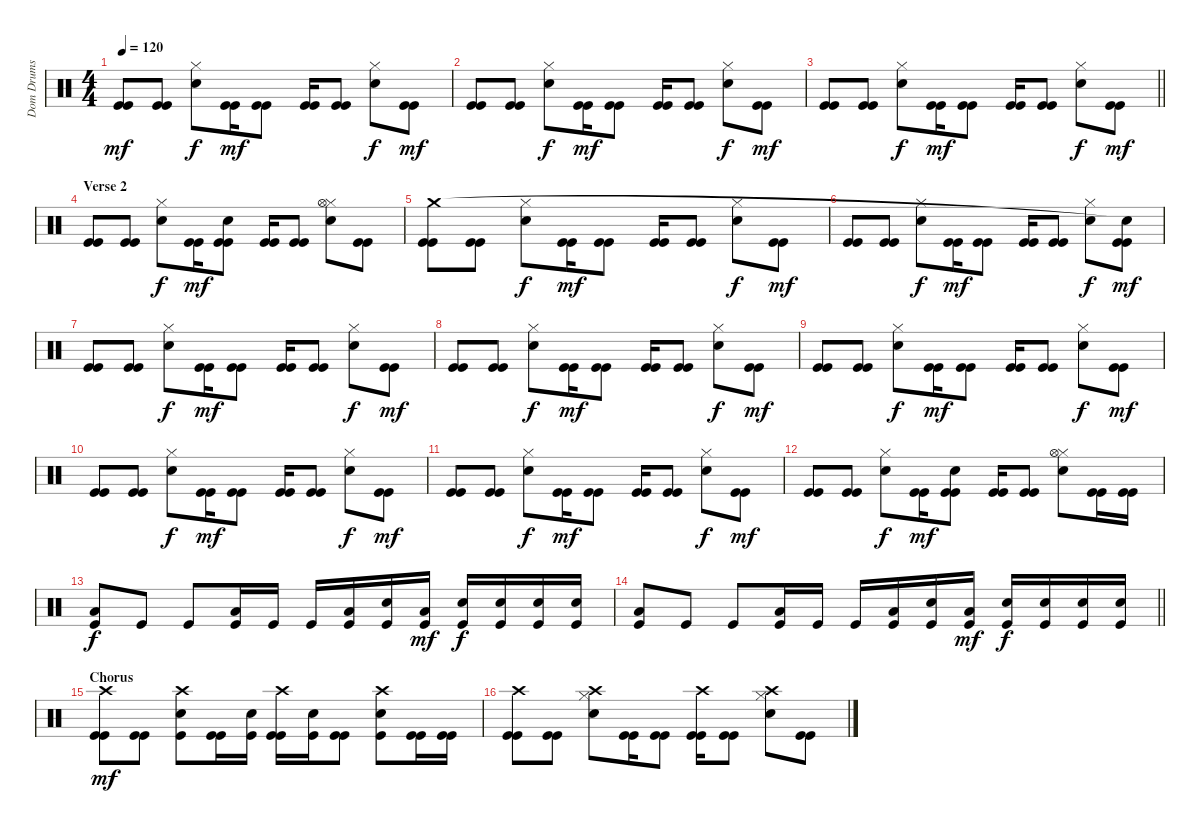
\track ("Dom Drums" "Dom Drums") {instrument percussion}
\staff {score}
\articulation defaults
\ts (4 4)
\tempo 120
\clef neutral
\ks c
("Kick (hit)" "Kick (hit)").8{dy mf} ("Kick (hit)" "Kick (hit)").8 ("Electric Snare (hit)" "Hi-Hat (closed)").8{dy f} ("Kick (hit)" "Kick (hit)").16{dy mf} ("Kick (hit)" "Kick (hit)").8 ("Kick (hit)" "Kick (hit)").16 ("Kick (hit)" "Kick (hit)").8 ("Electric Snare (hit)" "Hi-Hat (closed)").8{dy f} ("Kick (hit)" "Kick (hit)").8{dy mf} |
("Kick (hit)" "Kick (hit)").8 ("Kick (hit)" "Kick (hit)").8 ("Electric Snare (hit)" "Hi-Hat (closed)").8{dy f} ("Kick (hit)" "Kick (hit)").16{dy mf} ("Kick (hit)" "Kick (hit)").8 ("Kick (hit)" "Kick (hit)").16 ("Kick (hit)" "Kick (hit)").8 ("Electric Snare (hit)" "Hi-Hat (closed)").8{dy f} ("Kick (hit)" "Kick (hit)").8{dy mf} |
\barLineRight lightlight
("Kick (hit)" "Kick (hit)").8 ("Kick (hit)" "Kick (hit)").8 ("Electric Snare (hit)" "Hi-Hat (closed)").8{dy f} ("Kick (hit)" "Kick (hit)").16{dy mf} ("Kick (hit)" "Kick (hit)").8 ("Kick (hit)" "Kick (hit)").16 ("Kick (hit)" "Kick (hit)").8 ("Electric Snare (hit)" "Hi-Hat (closed)").8{dy f} ("Kick (hit)" "Kick (hit)").8{dy mf} |
\section ("" "Verse 2")
("Kick (hit)" "Kick (hit)").8 ("Kick (hit)" "Kick (hit)").8 ("Electric Snare (hit)" "Hi-Hat (closed)").8{dy f} ("Kick (hit)" "Kick (hit)").16{dy mf} ("Kick (hit)" "Kick (hit)" "Electric Snare (hit)").8 ("Kick (hit)" "Kick (hit)").16 ("Kick (hit)" "Kick (hit)").8 ("Electric Snare (hit)" "Hi-Hat (closed)" "Hi-Hat (open)").8 ("Kick (hit)" "Kick (hit)").8 |
("Kick (hit)" "Kick (hit)" "Crash medium (hit)").8 ("Kick (hit)" "Kick (hit)").8 ("Electric Snare (hit)" "Hi-Hat (closed)").8{dy f} ("Kick (hit)" "Kick (hit)").16{dy mf} ("Kick (hit)" "Kick (hit)").8 ("Kick (hit)" "Kick (hit)").16 ("Kick (hit)" "Kick (hit)").8 ("Electric Snare (hit)" "Hi-Hat (closed)").8{dy f} ("Kick (hit)" "Kick (hit)").8{dy mf} |
("Kick (hit)" "Kick (hit)").8 ("Kick (hit)" "Kick (hit)").8 ("Electric Snare (hit)" "Hi-Hat (closed)").8{dy f} ("Kick (hit)" "Kick (hit)").16{dy mf} ("Kick (hit)" "Kick (hit)").8 ("Kick (hit)" "Kick (hit)").16 ("Kick (hit)" "Kick (hit)").8 ("Electric Snare (hit)" "Hi-Hat (closed)").8{dy f} ("Kick (hit)" "Kick (hit)" "Snare (hit)"{t}).8{dy mf} |
("Kick (hit)" "Kick (hit)").8 ("Kick (hit)" "Kick (hit)").8 ("Electric Snare (hit)" "Hi-Hat (closed)").8{dy f} ("Kick (hit)" "Kick (hit)").16{dy mf} ("Kick (hit)" "Kick (hit)").8 ("Kick (hit)" "Kick (hit)").16 ("Kick (hit)" "Kick (hit)").8 ("Electric Snare (hit)" "Hi-Hat (closed)").8{dy f} ("Kick (hit)" "Kick (hit)").8{dy mf} |
("Kick (hit)" "Kick (hit)").8 ("Kick (hit)" "Kick (hit)").8 ("Electric Snare (hit)" "Hi-Hat (closed)").8{dy f} ("Kick (hit)" "Kick (hit)").16{dy mf} ("Kick (hit)" "Kick (hit)").8 ("Kick (hit)" "Kick (hit)").16 ("Kick (hit)" "Kick (hit)").8 ("Electric Snare (hit)" "Hi-Hat (closed)").8{dy f} ("Kick (hit)" "Kick (hit)").8{dy mf} |
("Kick (hit)" "Kick (hit)").8 ("Kick (hit)" "Kick (hit)").8 ("Electric Snare (hit)" "Hi-Hat (closed)").8{dy f} ("Kick (hit)" "Kick (hit)").16{dy mf} ("Kick (hit)" "Kick (hit)").8 ("Kick (hit)" "Kick (hit)").16 ("Kick (hit)" "Kick (hit)").8 ("Electric Snare (hit)" "Hi-Hat (closed)").8{dy f} ("Kick (hit)" "Kick (hit)").8{dy mf} |
("Kick (hit)" "Kick (hit)").8 ("Kick (hit)" "Kick (hit)").8 ("Electric Snare (hit)" "Hi-Hat (closed)").8{dy f} ("Kick (hit)" "Kick (hit)").16{dy mf} ("Kick (hit)" "Kick (hit)").8 ("Kick (hit)" "Kick (hit)").16 ("Kick (hit)" "Kick (hit)").8 ("Electric Snare (hit)" "Hi-Hat (closed)").8{dy f} ("Kick (hit)" "Kick (hit)").8{dy mf} |
("Kick (hit)" "Kick (hit)").8 ("Kick (hit)" "Kick (hit)").8 ("Electric Snare (hit)" "Hi-Hat (closed)").8{dy f} ("Kick (hit)" "Kick (hit)").16{dy mf} ("Kick (hit)" "Kick (hit)").8 ("Kick (hit)" "Kick (hit)").16 ("Kick (hit)" "Kick (hit)").8 ("Electric Snare (hit)" "Hi-Hat (closed)").8{dy f} ("Kick (hit)" "Kick (hit)").8{dy mf} |
("Kick (hit)" "Kick (hit)").8 ("Kick (hit)" "Kick (hit)").8 ("Electric Snare (hit)" "Hi-Hat (closed)").8{dy f} ("Kick (hit)" "Kick (hit)").16{dy mf} ("Kick (hit)" "Kick (hit)" "Electric Snare (hit)").8 ("Kick (hit)" "Kick (hit)").16 ("Kick (hit)" "Kick (hit)").8 ("Electric Snare (hit)" "Hi-Hat (closed)" "Hi-Hat (open)").8 ("Kick (hit)" "Kick (hit)").16 ("Kick (hit)" "Kick (hit)").16 |
("Kick (hit)" "Low Floor Tom (hit)").8{dy f} "Kick (hit)".8 "Kick (hit)".8 ("Kick (hit)" "Low Floor Tom (hit)").16 "Kick (hit)".16 "Kick (hit)".16 ("Kick (hit)" "Low Floor Tom (hit)").16 ("Kick (hit)" "Electric Snare (hit)").16 ("Kick (hit)" "Low Floor Tom (hit)").16{dy mf} ("Kick (hit)" "Electric Snare (hit)").16{dy f} ("Kick (hit)" "Electric Snare (hit)").16 ("Kick (hit)" "Electric Snare (hit)").16 ("Kick (hit)" "Electric Snare (hit)").16 |
\barLineRight lightlight
("Kick (hit)" "Low Floor Tom (hit)").8 "Kick (hit)".8 "Kick (hit)".8 ("Kick (hit)" "Low Floor Tom (hit)").16 "Kick (hit)".16 "Kick (hit)".16 ("Kick (hit)" "Low Floor Tom (hit)").16 ("Kick (hit)" "Electric Snare (hit)").16 ("Kick (hit)" "Low Floor Tom (hit)").16{dy mf} ("Kick (hit)" "Electric Snare (hit)").16{dy f} ("Kick (hit)" "Electric Snare (hit)").16 ("Kick (hit)" "Electric Snare (hit)").16 ("Kick (hit)" "Electric Snare (hit)").16 |
\section ("" "Chorus")
("Crash high (hit)" "Kick (hit)" "Kick (hit)").8{dy mf} ("Kick (hit)" "Kick (hit)").8 ("Crash high (hit)" "Kick (hit)" "Electric Snare (hit)").8 ("Kick (hit)" "Kick (hit)").16 ("Kick (hit)" "Electric Snare (hit)").16 ("Crash high (hit)" "Kick (hit)" "Kick (hit)").16 ("Kick (hit)" "Electric Snare (hit)").16 ("Kick (hit)" "Kick (hit)").8 ("Crash high (hit)" "Kick (hit)" "Electric Snare (hit)").8 ("Kick (hit)" "Kick (hit)").16 ("Kick (hit)" "Kick (hit)").16 |
("Kick (hit)" "Kick (hit)" "Crash high (hit)").8 ("Kick (hit)" "Kick (hit)").8 ("Electric Snare (hit)" "Hi-Hat (closed)" "Crash high (hit)").8 ("Kick (hit)" "Kick (hit)").16 ("Kick (hit)" "Kick (hit)").8 ("Kick (hit)" "Kick (hit)" "Crash high (hit)").16 ("Kick (hit)" "Kick (hit)").8 ("Electric Snare (hit)" "Hi-Hat (closed)" "Crash high (hit)").8 ("Kick (hit)" "Kick (hit)").8
